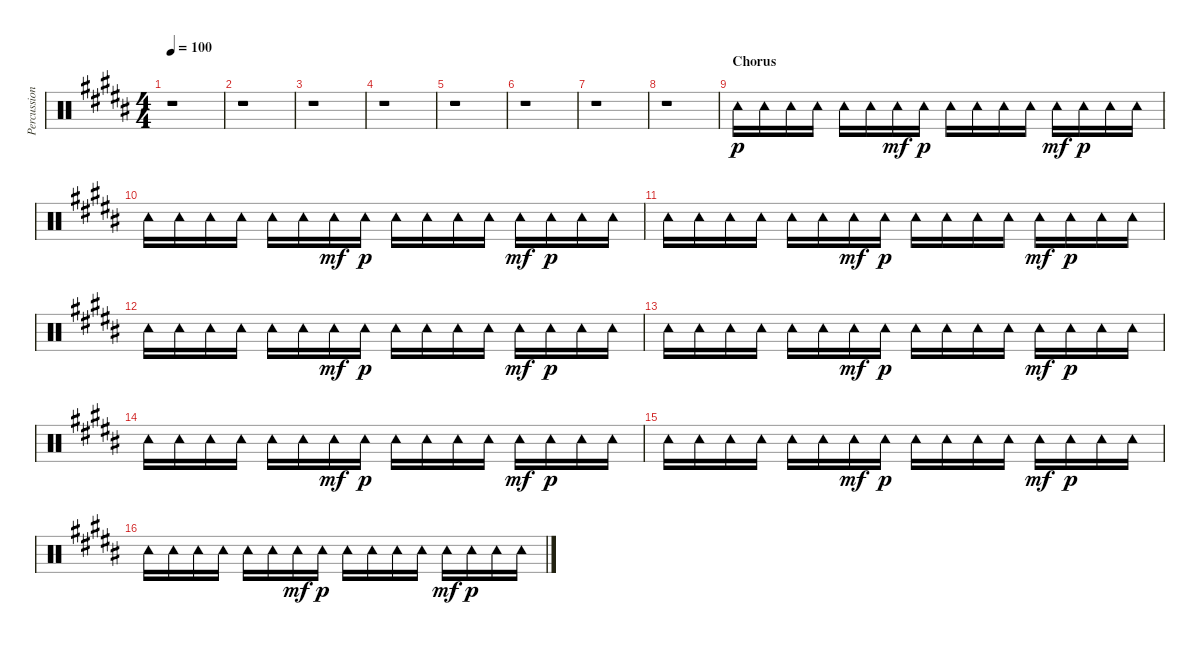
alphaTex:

\track ("Percussion" "Percussion") {instrument percussion}
\staff {score}
\articulation defaults
\ts (4 4)
\tempo 100
\clef neutral
\ks b
r.1{dy p} |
r.1 |
r.1 |
r.1 |
r.1 |
r.1 |
r.1 |
r.1 |
\section ("" "Chorus")
"Tambourine (hit)".16 "Tambourine (hit)".16 "Tambourine (hit)".16 "Tambourine (hit)".16 "Tambourine (hit)".16 "Tambourine (hit)".16 "Tambourine (hit)".16{dy mf} "Tambourine (hit)".16{dy p} "Tambourine (hit)".16 "Tambourine (hit)".16 "Tambourine (hit)".16 "Tambourine (hit)".16 "Tambourine (hit)".16{dy mf} "Tambourine (hit)".16{dy p} "Tambourine (hit)".16 "Tambourine (hit)".16 |
"Tambourine (hit)".16 "Tambourine (hit)".16 "Tambourine (hit)".16 "Tambourine (hit)".16 "Tambourine (hit)".16 "Tambourine (hit)".16 "Tambourine (hit)".16{dy mf} "Tambourine (hit)".16{dy p} "Tambourine (hit)".16 "Tambourine (hit)".16 "Tambourine (hit)".16 "Tambourine (hit)".16 "Tambourine (hit)".16{dy mf} "Tambourine (hit)".16{dy p} "Tambourine (hit)".16 "Tambourine (hit)".16 |
"Tambourine (hit)".16 "Tambourine (hit)".16 "Tambourine (hit)".16 "Tambourine (hit)".16 "Tambourine (hit)".16 "Tambourine (hit)".16 "Tambourine (hit)".16{dy mf} "Tambourine (hit)".16{dy p} "Tambourine (hit)".16 "Tambourine (hit)".16 "Tambourine (hit)".16 "Tambourine (hit)".16 "Tambourine (hit)".16{dy mf} "Tambourine (hit)".16{dy p} "Tambourine (hit)".16 "Tambourine (hit)".16 |
"Tambourine (hit)".16 "Tambourine (hit)".16 "Tambourine (hit)".16 "Tambourine (hit)".16 "Tambourine (hit)".16 "Tambourine (hit)".16 "Tambourine (hit)".16{dy mf} "Tambourine (hit)".16{dy p} "Tambourine (hit)".16 "Tambourine (hit)".16 "Tambourine (hit)".16 "Tambourine (hit)".16 "Tambourine (hit)".16{dy mf} "Tambourine (hit)".16{dy p} "Tambourine (hit)".16 "Tambourine (hit)".16 |
"Tambourine (hit)".16 "Tambourine (hit)".16 "Tambourine (hit)".16 "Tambourine (hit)".16 "Tambourine (hit)".16 "Tambourine (hit)".16 "Tambourine (hit)".16{dy mf} "Tambourine (hit)".16{dy p} "Tambourine (hit)".16 "Tambourine (hit)".16 "Tambourine (hit)".16 "Tambourine (hit)".16 "Tambourine (hit)".16{dy mf} "Tambourine (hit)".16{dy p} "Tambourine (hit)".16 "Tambourine (hit)".16 |
"Tambourine (hit)".16 "Tambourine (hit)".16 "Tambourine (hit)".16 "Tambourine (hit)".16 "Tambourine (hit)".16 "Tambourine (hit)".16 "Tambourine (hit)".16{dy mf} "Tambourine (hit)".16{dy p} "Tambourine (hit)".16 "Tambourine (hit)".16 "Tambourine (hit)".16 "Tambourine (hit)".16 "Tambourine (hit)".16{dy mf} "Tambourine (hit)".16{dy p} "Tambourine (hit)".16 "Tambourine (hit)".16 |
"Tambourine (hit)".16 "Tambourine (hit)".16 "Tambourine (hit)".16 "Tambourine (hit)".16 "Tambourine (hit)".16 "Tambourine (hit)".16 "Tambourine (hit)".16{dy mf} "Tambourine (hit)".16{dy p} "Tambourine (hit)".16 "Tambourine (hit)".16 "Tambourine (hit)".16 "Tambourine (hit)".16 "Tambourine (hit)".16{dy mf} "Tambourine (hit)".16{dy p} "Tambourine (hit)".16 "Tambourine (hit)".16 |
"Tambourine (hit)".16 "Tambourine (hit)".16 "Tambourine (hit)".16 "Tambourine (hit)".16 "Tambourine (hit)".16 "Tambourine (hit)".16 "Tambourine (hit)".16{dy mf} "Tambourine (hit)".16{dy p} "Tambourine (hit)".16 "Tambourine (hit)".16 "Tambourine (hit)".16 "Tambourine (hit)".16 "Tambourine (hit)".16{dy mf} "Tambourine (hit)".16{dy p} "Tambourine (hit)".16 "Tambourine (hit)".16
